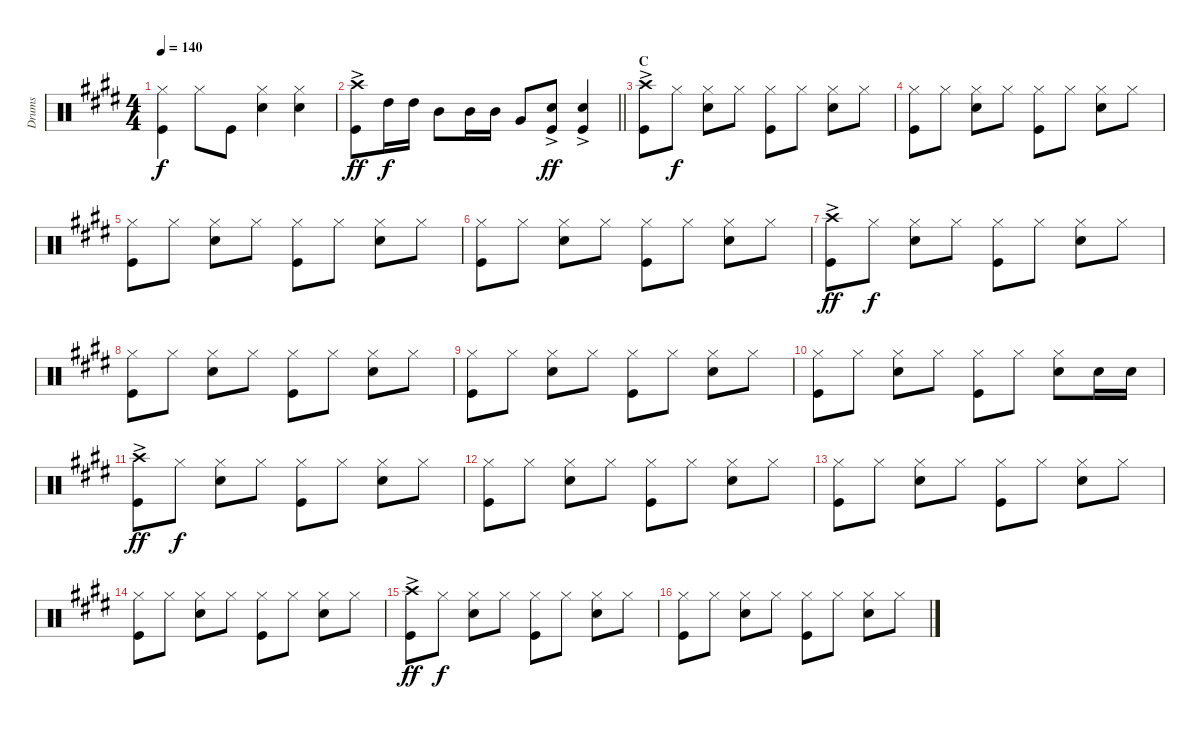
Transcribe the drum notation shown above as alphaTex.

\track ("Drums" "Drums") {instrument percussion}
\staff {score}
\articulation defaults
\ts (4 4)
\tempo 140
\clef neutral
\ks e
("Hi-Hat (closed)" "Kick (hit)").4{dy f} "Hi-Hat (closed)".8 "Kick (hit)".8 ("Hi-Hat (closed)" "Snare (hit) 2").4 ("Hi-Hat (closed)" "Snare (hit) 2").4 |
\barLineRight lightlight
("Crash high (hit)"{ac} "Kick (hit)").8{dy ff} "High Tom (hit)".16{dy f} "High Tom (hit)".16 "Mid Tom (hit)".8 "Mid Tom (hit)".16 "Mid Tom (hit)".16 "Very Low Tom (hit)".8 ("Snare (hit) 2"{ac} "Kick (hit)"{ac}).8{dy ff} ("Kick (hit)"{ac} "Snare (hit) 2"{ac}).4 |
\section ("" "C")
("Crash high (hit)"{ac} "Kick (hit)").8 "Hi-Hat (closed)".8{dy f} ("Snare (hit) 2" "Hi-Hat (closed)").8 "Hi-Hat (closed)".8 ("Kick (hit)" "Hi-Hat (closed)").8 "Hi-Hat (closed)".8 ("Hi-Hat (closed)" "Snare (hit) 2").8 "Hi-Hat (closed)".8 |
("Hi-Hat (closed)" "Kick (hit)").8 "Hi-Hat (closed)".8 ("Snare (hit) 2" "Hi-Hat (closed)").8 "Hi-Hat (closed)".8 ("Kick (hit)" "Hi-Hat (closed)").8 "Hi-Hat (closed)".8 ("Hi-Hat (closed)" "Snare (hit) 2").8 "Hi-Hat (closed)".8 |
("Hi-Hat (closed)" "Kick (hit)").8 "Hi-Hat (closed)".8 ("Snare (hit) 2" "Hi-Hat (closed)").8 "Hi-Hat (closed)".8 ("Kick (hit)" "Hi-Hat (closed)").8 "Hi-Hat (closed)".8 ("Hi-Hat (closed)" "Snare (hit) 2").8 "Hi-Hat (closed)".8 |
("Hi-Hat (closed)" "Kick (hit)").8 "Hi-Hat (closed)".8 ("Snare (hit) 2" "Hi-Hat (closed)").8 "Hi-Hat (closed)".8 ("Kick (hit)" "Hi-Hat (closed)").8 "Hi-Hat (closed)".8 ("Hi-Hat (closed)" "Snare (hit) 2").8 "Hi-Hat (closed)".8 |
("Crash high (hit)"{ac} "Kick (hit)").8{dy ff} "Hi-Hat (closed)".8{dy f} ("Snare (hit) 2" "Hi-Hat (closed)").8 "Hi-Hat (closed)".8 ("Kick (hit)" "Hi-Hat (closed)").8 "Hi-Hat (closed)".8 ("Hi-Hat (closed)" "Snare (hit) 2").8 "Hi-Hat (closed)".8 |
("Hi-Hat (closed)" "Kick (hit)").8 "Hi-Hat (closed)".8 ("Snare (hit) 2" "Hi-Hat (closed)").8 "Hi-Hat (closed)".8 ("Kick (hit)" "Hi-Hat (closed)").8 "Hi-Hat (closed)".8 ("Hi-Hat (closed)" "Snare (hit) 2").8 "Hi-Hat (closed)".8 |
("Hi-Hat (closed)" "Kick (hit)").8 "Hi-Hat (closed)".8 ("Snare (hit) 2" "Hi-Hat (closed)").8 "Hi-Hat (closed)".8 ("Kick (hit)" "Hi-Hat (closed)").8 "Hi-Hat (closed)".8 ("Hi-Hat (closed)" "Snare (hit) 2").8 "Hi-Hat (closed)".8 |
("Hi-Hat (closed)" "Kick (hit)").8 "Hi-Hat (closed)".8 ("Snare (hit) 2" "Hi-Hat (closed)").8 "Hi-Hat (closed)".8 ("Kick (hit)" "Hi-Hat (closed)").8 "Hi-Hat (closed)".8 ("Hi-Hat (closed)" "Snare (hit) 2").8 "Snare (hit) 2".16 "Snare (hit) 2".16 |
("Crash high (hit)"{ac} "Kick (hit)").8{dy ff} "Hi-Hat (closed)".8{dy f} ("Snare (hit) 2" "Hi-Hat (closed)").8 "Hi-Hat (closed)".8 ("Kick (hit)" "Hi-Hat (closed)").8 "Hi-Hat (closed)".8 ("Hi-Hat (closed)" "Snare (hit) 2").8 "Hi-Hat (closed)".8 |
("Hi-Hat (closed)" "Kick (hit)").8 "Hi-Hat (closed)".8 ("Snare (hit) 2" "Hi-Hat (closed)").8 "Hi-Hat (closed)".8 ("Kick (hit)" "Hi-Hat (closed)").8 "Hi-Hat (closed)".8 ("Hi-Hat (closed)" "Snare (hit) 2").8 "Hi-Hat (closed)".8 |
("Hi-Hat (closed)" "Kick (hit)").8 "Hi-Hat (closed)".8 ("Snare (hit) 2" "Hi-Hat (closed)").8 "Hi-Hat (closed)".8 ("Kick (hit)" "Hi-Hat (closed)").8 "Hi-Hat (closed)".8 ("Hi-Hat (closed)" "Snare (hit) 2").8 "Hi-Hat (closed)".8 |
("Hi-Hat (closed)" "Kick (hit)").8 "Hi-Hat (closed)".8 ("Snare (hit) 2" "Hi-Hat (closed)").8 "Hi-Hat (closed)".8 ("Kick (hit)" "Hi-Hat (closed)").8 "Hi-Hat (closed)".8 ("Hi-Hat (closed)" "Snare (hit) 2").8 "Hi-Hat (closed)".8 |
("Crash high (hit)"{ac} "Kick (hit)").8{dy ff} "Hi-Hat (closed)".8{dy f} ("Snare (hit) 2" "Hi-Hat (closed)").8 "Hi-Hat (closed)".8 ("Kick (hit)" "Hi-Hat (closed)").8 "Hi-Hat (closed)".8 ("Hi-Hat (closed)" "Snare (hit) 2").8 "Hi-Hat (closed)".8 |
("Hi-Hat (closed)" "Kick (hit)").8 "Hi-Hat (closed)".8 ("Snare (hit) 2" "Hi-Hat (closed)").8 "Hi-Hat (closed)".8 ("Kick (hit)" "Hi-Hat (closed)").8 "Hi-Hat (closed)".8 ("Hi-Hat (closed)" "Snare (hit) 2").8 "Hi-Hat (closed)".8
